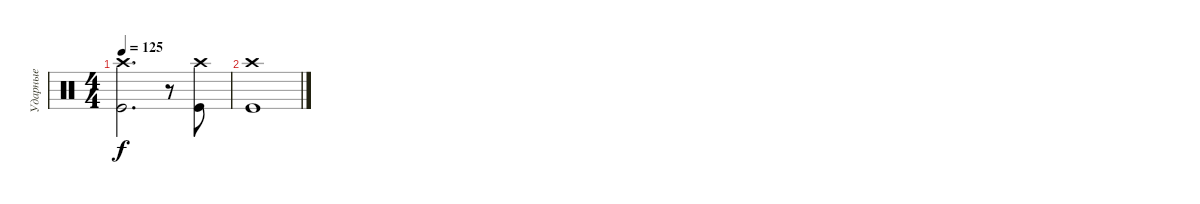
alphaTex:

\track ("Ударные" "Ударные") {instrument percussion}
\staff {score}
\articulation defaults
\ts (4 4)
\tempo 125
\clef neutral
\ks c
("Kick (hit)" "Crash high (hit)").2{d dy f} r.8 ("Kick (hit)" "Crash high (hit)").8 |
("Kick (hit)" "Crash high (hit)").1
